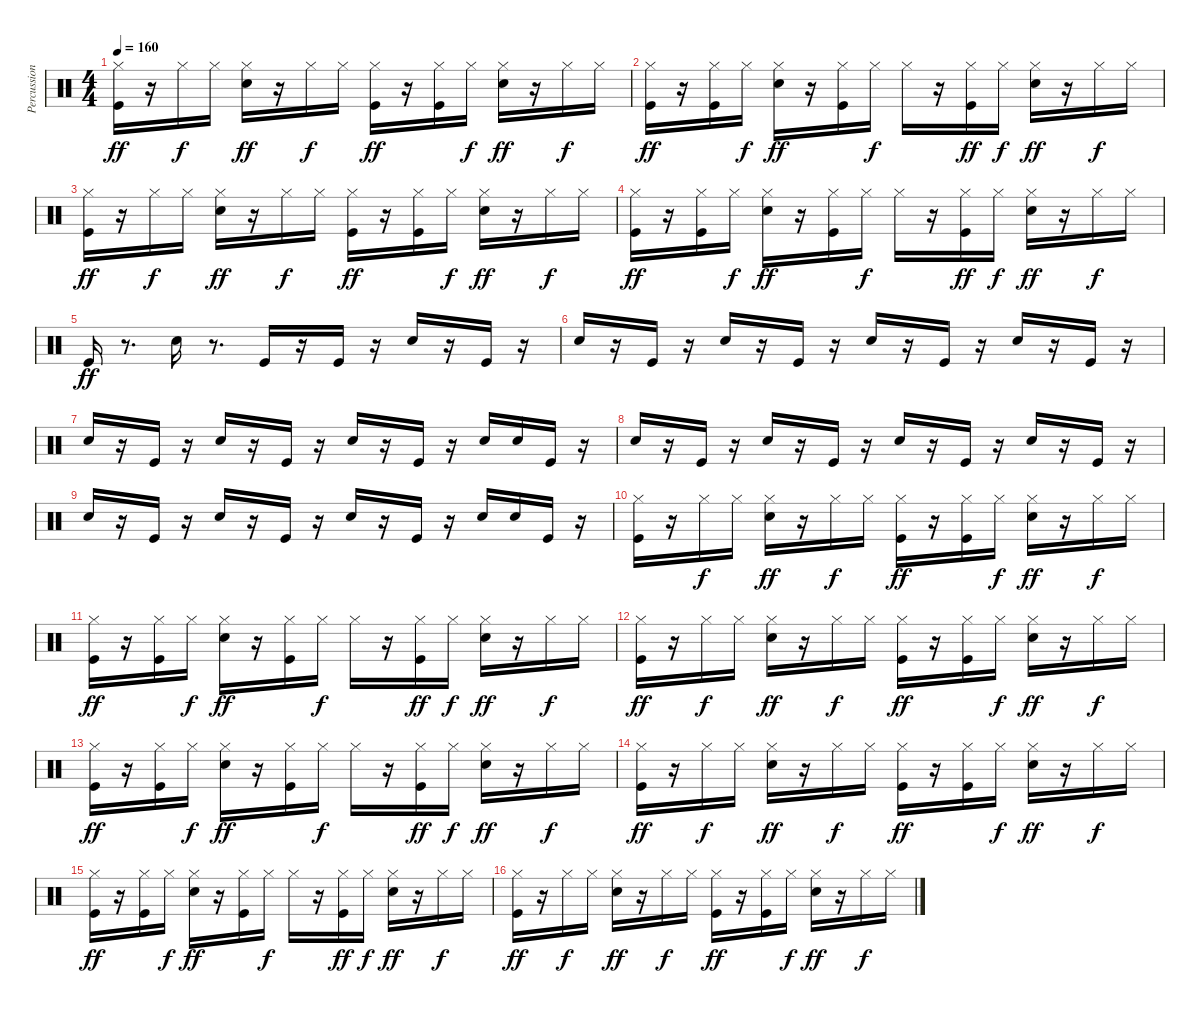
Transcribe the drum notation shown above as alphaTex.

\track ("Percussion" "Percussion") {instrument percussion}
\staff {score}
\articulation defaults
\ts (4 4)
\tempo 160
\clef neutral
\ks c
("Kick (hit)" "Hi-Hat (closed)").16{dy ff} r.16 "Hi-Hat (closed)".16{dy f} "Hi-Hat (closed)".16 ("Snare (hit) 2" "Hi-Hat (closed)").16{dy ff} r.16 "Hi-Hat (closed)".16{dy f} "Hi-Hat (closed)".16 ("Kick (hit)" "Hi-Hat (closed)").16{dy ff} r.16 ("Kick (hit)" "Hi-Hat (closed)").16 "Hi-Hat (closed)".16{dy f} ("Snare (hit) 2" "Hi-Hat (closed)").16{dy ff} r.16 "Hi-Hat (closed)".16{dy f} "Hi-Hat (closed)".16 |
("Kick (hit)" "Hi-Hat (closed)").16{dy ff} r.16 ("Kick (hit)" "Hi-Hat (closed)").16 "Hi-Hat (closed)".16{dy f} ("Snare (hit) 2" "Hi-Hat (closed)").16{dy ff} r.16 ("Kick (hit)" "Hi-Hat (closed)").16 "Hi-Hat (closed)".16{dy f} "Hi-Hat (closed)".16 r.16 ("Kick (hit)" "Hi-Hat (closed)").16{dy ff} "Hi-Hat (closed)".16{dy f} ("Snare (hit) 2" "Hi-Hat (closed)").16{dy ff} r.16 "Hi-Hat (closed)".16{dy f} "Hi-Hat (closed)".16 |
("Kick (hit)" "Hi-Hat (closed)").16{dy ff} r.16 "Hi-Hat (closed)".16{dy f} "Hi-Hat (closed)".16 ("Snare (hit) 2" "Hi-Hat (closed)").16{dy ff} r.16 "Hi-Hat (closed)".16{dy f} "Hi-Hat (closed)".16 ("Kick (hit)" "Hi-Hat (closed)").16{dy ff} r.16 ("Kick (hit)" "Hi-Hat (closed)").16 "Hi-Hat (closed)".16{dy f} ("Snare (hit) 2" "Hi-Hat (closed)").16{dy ff} r.16 "Hi-Hat (closed)".16{dy f} "Hi-Hat (closed)".16 |
("Kick (hit)" "Hi-Hat (closed)").16{dy ff} r.16 ("Kick (hit)" "Hi-Hat (closed)").16 "Hi-Hat (closed)".16{dy f} ("Snare (hit) 2" "Hi-Hat (closed)").16{dy ff} r.16 ("Kick (hit)" "Hi-Hat (closed)").16 "Hi-Hat (closed)".16{dy f} "Hi-Hat (closed)".16 r.16 ("Kick (hit)" "Hi-Hat (closed)").16{dy ff} "Hi-Hat (closed)".16{dy f} ("Snare (hit) 2" "Hi-Hat (closed)").16{dy ff} r.16 "Hi-Hat (closed)".16{dy f} "Hi-Hat (closed)".16 |
"Kick (hit)".16{dy ff} r.8{d} "Snare (hit) 2".16 r.8{d} "Kick (hit)".16 r.16 "Kick (hit)".16 r.16 "Snare (hit) 2".16 r.16 "Kick (hit)".16 r.16 |
"Snare (hit) 2".16 r.16 "Kick (hit)".16 r.16 "Snare (hit) 2".16 r.16 "Kick (hit)".16 r.16 "Snare (hit) 2".16 r.16 "Kick (hit)".16 r.16 "Snare (hit) 2".16 r.16 "Kick (hit)".16 r.16 |
"Snare (hit) 2".16 r.16 "Kick (hit)".16 r.16 "Snare (hit) 2".16 r.16 "Kick (hit)".16 r.16 "Snare (hit) 2".16 r.16 "Kick (hit)".16 r.16 "Snare (hit) 2".16 "Snare (hit) 2".16 "Kick (hit)".16 r.16 |
"Snare (hit) 2".16 r.16 "Kick (hit)".16 r.16 "Snare (hit) 2".16 r.16 "Kick (hit)".16 r.16 "Snare (hit) 2".16 r.16 "Kick (hit)".16 r.16 "Snare (hit) 2".16 r.16 "Kick (hit)".16 r.16 |
"Snare (hit) 2".16 r.16 "Kick (hit)".16 r.16 "Snare (hit) 2".16 r.16 "Kick (hit)".16 r.16 "Snare (hit) 2".16 r.16 "Kick (hit)".16 r.16 "Snare (hit) 2".16 "Snare (hit) 2".16 "Kick (hit)".16 r.16 |
("Kick (hit)" "Hi-Hat (closed)").16 r.16 "Hi-Hat (closed)".16{dy f} "Hi-Hat (closed)".16 ("Snare (hit) 2" "Hi-Hat (closed)").16{dy ff} r.16 "Hi-Hat (closed)".16{dy f} "Hi-Hat (closed)".16 ("Kick (hit)" "Hi-Hat (closed)").16{dy ff} r.16 ("Kick (hit)" "Hi-Hat (closed)").16 "Hi-Hat (closed)".16{dy f} ("Snare (hit) 2" "Hi-Hat (closed)").16{dy ff} r.16 "Hi-Hat (closed)".16{dy f} "Hi-Hat (closed)".16 |
("Kick (hit)" "Hi-Hat (closed)").16{dy ff} r.16 ("Kick (hit)" "Hi-Hat (closed)").16 "Hi-Hat (closed)".16{dy f} ("Snare (hit) 2" "Hi-Hat (closed)").16{dy ff} r.16 ("Kick (hit)" "Hi-Hat (closed)").16 "Hi-Hat (closed)".16{dy f} "Hi-Hat (closed)".16 r.16 ("Kick (hit)" "Hi-Hat (closed)").16{dy ff} "Hi-Hat (closed)".16{dy f} ("Snare (hit) 2" "Hi-Hat (closed)").16{dy ff} r.16 "Hi-Hat (closed)".16{dy f} "Hi-Hat (closed)".16 |
("Kick (hit)" "Hi-Hat (closed)").16{dy ff} r.16 "Hi-Hat (closed)".16{dy f} "Hi-Hat (closed)".16 ("Snare (hit) 2" "Hi-Hat (closed)").16{dy ff} r.16 "Hi-Hat (closed)".16{dy f} "Hi-Hat (closed)".16 ("Kick (hit)" "Hi-Hat (closed)").16{dy ff} r.16 ("Kick (hit)" "Hi-Hat (closed)").16 "Hi-Hat (closed)".16{dy f} ("Snare (hit) 2" "Hi-Hat (closed)").16{dy ff} r.16 "Hi-Hat (closed)".16{dy f} "Hi-Hat (closed)".16 |
("Kick (hit)" "Hi-Hat (closed)").16{dy ff} r.16 ("Kick (hit)" "Hi-Hat (closed)").16 "Hi-Hat (closed)".16{dy f} ("Snare (hit) 2" "Hi-Hat (closed)").16{dy ff} r.16 ("Kick (hit)" "Hi-Hat (closed)").16 "Hi-Hat (closed)".16{dy f} "Hi-Hat (closed)".16 r.16 ("Kick (hit)" "Hi-Hat (closed)").16{dy ff} "Hi-Hat (closed)".16{dy f} ("Snare (hit) 2" "Hi-Hat (closed)").16{dy ff} r.16 "Hi-Hat (closed)".16{dy f} "Hi-Hat (closed)".16 |
("Kick (hit)" "Hi-Hat (closed)").16{dy ff} r.16 "Hi-Hat (closed)".16{dy f} "Hi-Hat (closed)".16 ("Snare (hit) 2" "Hi-Hat (closed)").16{dy ff} r.16 "Hi-Hat (closed)".16{dy f} "Hi-Hat (closed)".16 ("Kick (hit)" "Hi-Hat (closed)").16{dy ff} r.16 ("Kick (hit)" "Hi-Hat (closed)").16 "Hi-Hat (closed)".16{dy f} ("Snare (hit) 2" "Hi-Hat (closed)").16{dy ff} r.16 "Hi-Hat (closed)".16{dy f} "Hi-Hat (closed)".16 |
("Kick (hit)" "Hi-Hat (closed)").16{dy ff} r.16 ("Kick (hit)" "Hi-Hat (closed)").16 "Hi-Hat (closed)".16{dy f} ("Snare (hit) 2" "Hi-Hat (closed)").16{dy ff} r.16 ("Kick (hit)" "Hi-Hat (closed)").16 "Hi-Hat (closed)".16{dy f} "Hi-Hat (closed)".16 r.16 ("Kick (hit)" "Hi-Hat (closed)").16{dy ff} "Hi-Hat (closed)".16{dy f} ("Snare (hit) 2" "Hi-Hat (closed)").16{dy ff} r.16 "Hi-Hat (closed)".16{dy f} "Hi-Hat (closed)".16 |
("Kick (hit)" "Hi-Hat (closed)").16{dy ff} r.16 "Hi-Hat (closed)".16{dy f} "Hi-Hat (closed)".16 ("Snare (hit) 2" "Hi-Hat (closed)").16{dy ff} r.16 "Hi-Hat (closed)".16{dy f} "Hi-Hat (closed)".16 ("Kick (hit)" "Hi-Hat (closed)").16{dy ff} r.16 ("Kick (hit)" "Hi-Hat (closed)").16 "Hi-Hat (closed)".16{dy f} ("Snare (hit) 2" "Hi-Hat (closed)").16{dy ff} r.16 "Hi-Hat (closed)".16{dy f} "Hi-Hat (closed)".16
